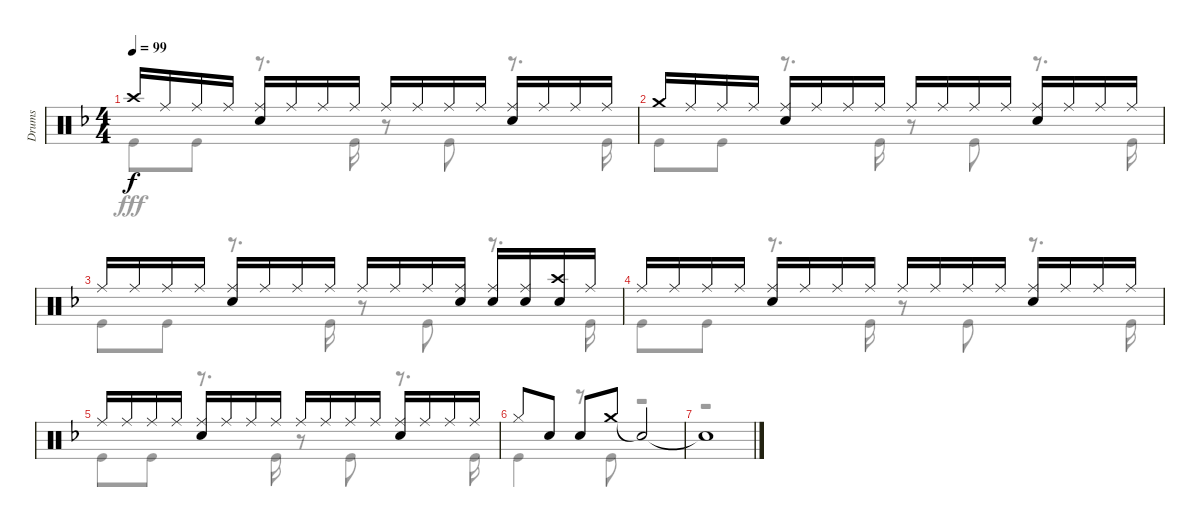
\track ("Drums" "Drums") {instrument percussion}
\staff {score}
\articulation defaults
\voice
\ts (4 4)
\tempo 99
\clef neutral
\ks f "Crash high (hit)".16{dy f} "Ride (middle)".16 "Ride (middle)".16 "Ride (middle)".16
("Ride (middle)" "Snare (hit) 2").16 "Ride (middle)".16 "Ride (middle)".16 "Ride (middle)".16 "Ride (middle)".16 "Ride (middle)".16 "Ride (middle)".16 "Ride (middle)".16 ("Ride (middle)" "Snare (hit) 2").16 "Ride (middle)".16 "Ride (middle)".16 "Ride (middle)".16 |
"Crash medium (hit)".16 "Ride (middle)".16 "Ride (middle)".16 "Ride (middle)".16 ("Ride (middle)" "Snare (hit) 2").16 "Ride (middle)".16 "Ride (middle)".16 "Ride (middle)".16 "Ride (middle)".16 "Ride (middle)".16 "Ride (middle)".16 "Ride (middle)".16 ("Ride (middle)" "Snare (hit) 2").16 "Ride (middle)".16 "Ride (middle)".16 "Ride (middle)".16 |
"Ride (middle)".16 "Ride (middle)".16 "Ride (middle)".16 "Ride (middle)".16 ("Ride (middle)" "Snare (hit) 2").16 "Ride (middle)".16 "Ride (middle)".16 "Ride (middle)".16 "Ride (middle)".16 "Ride (middle)".16 "Ride (middle)".16 ("Ride (middle)" "Snare (hit) 2").16 ("Ride (middle)" "Snare (hit) 2").16 ("Ride (middle)" "Snare (hit) 2").16 ("Crash high (hit)" "Snare (hit) 2").16 "Ride (middle)".16 |
"Ride (middle)".16 "Ride (middle)".16 "Ride (middle)".16 "Ride (middle)".16 ("Ride (middle)" "Snare (hit) 2").16 "Ride (middle)".16 "Ride (middle)".16 "Ride (middle)".16 "Ride (middle)".16 "Ride (middle)".16 "Ride (middle)".16 "Ride (middle)".16 ("Ride (middle)" "Snare (hit) 2").16 "Ride (middle)".16 "Ride (middle)".16 "Ride (middle)".16 |
"Ride (middle)".16 "Ride (middle)".16 "Ride (middle)".16 "Ride (middle)".16 ("Ride (middle)" "Snare (hit) 2").16 "Ride (middle)".16 "Ride (middle)".16 "Ride (middle)".16 "Ride (middle)".16 "Ride (middle)".16 "Ride (middle)".16 "Ride (middle)".16 ("Ride (middle)" "Snare (hit) 2").16 "Ride (middle)".16 "Ride (middle)".16 "Ride (middle)".16 |
"Hi-Hat (closed)".8 "Snare (hit) 2".8 "Snare (hit) 2".8 "Crash medium (hit)".8 "Snare (hit)"{t}.2 |
"Snare (hit)"{t}.1
\voice
\clef neutral
\ottava regular
\simile none
\ks f "Kick (hit)".8{dy fff} "Kick (hit)".8
r.8{d} "Kick (hit)".16 r.8 "Kick (hit)".8 r.8{d} "Kick (hit)".16 |
"Kick (hit)".8 "Kick (hit)".8 r.8{d} "Kick (hit)".16 r.8 "Kick (hit)".8 r.8{d} "Kick (hit)".16 |
"Kick (hit)".8 "Kick (hit)".8 r.8{d} "Kick (hit)".16 r.8 "Kick (hit)".8 r.8{d} "Kick (hit)".16 |
"Kick (hit)".8 "Kick (hit)".8 r.8{d} "Kick (hit)".16 r.8 "Kick (hit)".8 r.8{d} "Kick (hit)".16 |
"Kick (hit)".8 "Kick (hit)".8 r.8{d} "Kick (hit)".16 r.8 "Kick (hit)".8 r.8{d} "Kick (hit)".16 |
"Kick (hit)".4 r.8 "Kick (hit)".8 r.2 |
r.1
